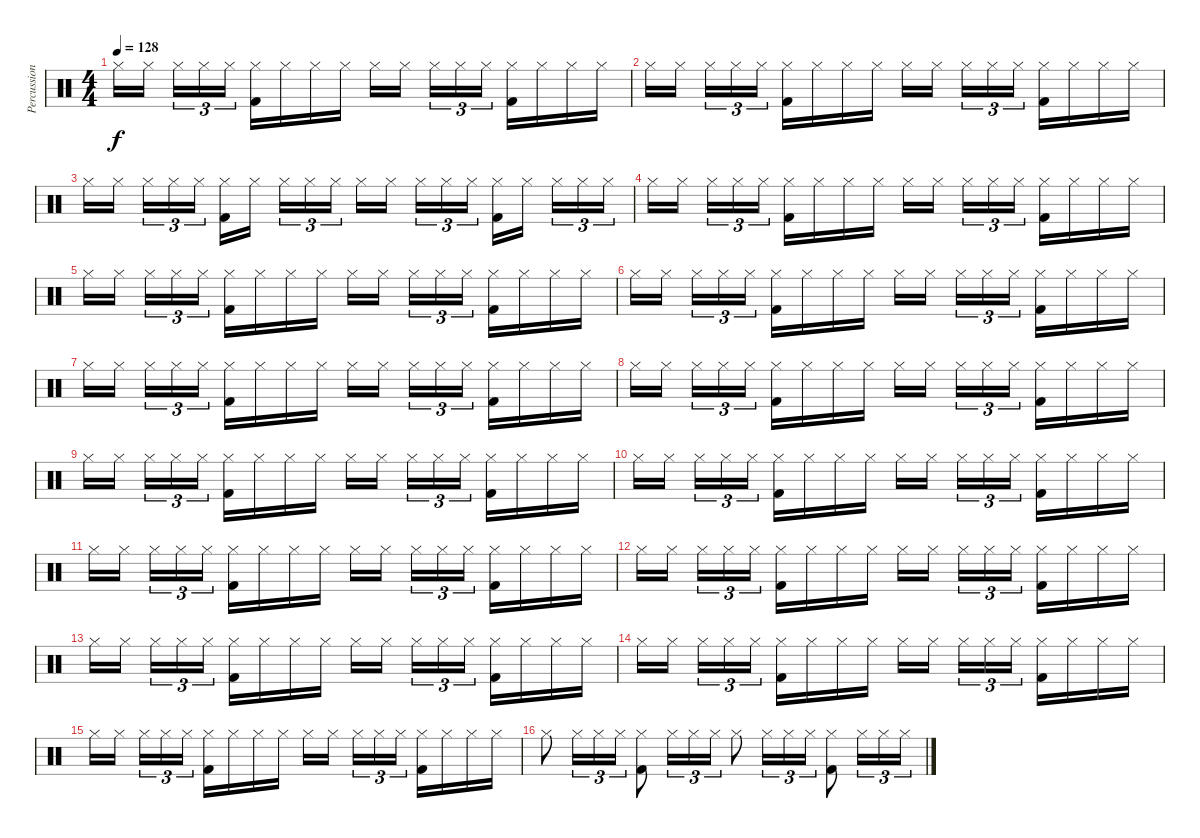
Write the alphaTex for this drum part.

\track ("Percussion" "Percussion") {instrument percussion}
\staff {score}
\articulation defaults
\ts (4 4)
\tempo 128
\clef neutral
\ks c "Hi-Hat (closed)".16{dy f} "Hi-Hat (closed)".16 "Hi-Hat (closed)".16{tu (3 2)} "Hi-Hat (closed)".16{tu (3 2)} "Hi-Hat (closed)".16{tu (3 2)}
("Kick (hit) 2" "Hi-Hat (closed)").16 "Hi-Hat (closed)".16 "Hi-Hat (closed)".16 "Hi-Hat (closed)".16 "Hi-Hat (closed)".16 "Hi-Hat (closed)".16 "Hi-Hat (closed)".16{tu (3 2)} "Hi-Hat (closed)".16{tu (3 2)} "Hi-Hat (closed)".16{tu (3 2)} ("Kick (hit) 2" "Hi-Hat (closed)").16 "Hi-Hat (closed)".16 "Hi-Hat (closed)".16 "Hi-Hat (closed)".16 |
"Hi-Hat (closed)".16 "Hi-Hat (closed)".16 "Hi-Hat (closed)".16{tu (3 2)} "Hi-Hat (closed)".16{tu (3 2)} "Hi-Hat (closed)".16{tu (3 2)} ("Kick (hit) 2" "Hi-Hat (closed)").16 "Hi-Hat (closed)".16 "Hi-Hat (closed)".16 "Hi-Hat (closed)".16 "Hi-Hat (closed)".16 "Hi-Hat (closed)".16 "Hi-Hat (closed)".16{tu (3 2)} "Hi-Hat (closed)".16{tu (3 2)} "Hi-Hat (closed)".16{tu (3 2)} ("Kick (hit) 2" "Hi-Hat (closed)").16 "Hi-Hat (closed)".16 "Hi-Hat (closed)".16 "Hi-Hat (closed)".16 |
"Hi-Hat (closed)".16 "Hi-Hat (closed)".16 "Hi-Hat (closed)".16{tu (3 2)} "Hi-Hat (closed)".16{tu (3 2)} "Hi-Hat (closed)".16{tu (3 2)} ("Kick (hit) 2" "Hi-Hat (closed)").16 "Hi-Hat (closed)".16 "Hi-Hat (closed)".16{tu (3 2)} "Hi-Hat (closed)".16{tu (3 2)} "Hi-Hat (closed)".16{tu (3 2)} "Hi-Hat (closed)".16 "Hi-Hat (closed)".16 "Hi-Hat (closed)".16{tu (3 2)} "Hi-Hat (closed)".16{tu (3 2)} "Hi-Hat (closed)".16{tu (3 2)} ("Kick (hit) 2" "Hi-Hat (closed)").16 "Hi-Hat (closed)".16 "Hi-Hat (closed)".16{tu (3 2)} "Hi-Hat (closed)".16{tu (3 2)} "Hi-Hat (closed)".16{tu (3 2)} |
"Hi-Hat (closed)".16 "Hi-Hat (closed)".16 "Hi-Hat (closed)".16{tu (3 2)} "Hi-Hat (closed)".16{tu (3 2)} "Hi-Hat (closed)".16{tu (3 2)} ("Kick (hit) 2" "Hi-Hat (closed)").16 "Hi-Hat (closed)".16 "Hi-Hat (closed)".16 "Hi-Hat (closed)".16 "Hi-Hat (closed)".16 "Hi-Hat (closed)".16 "Hi-Hat (closed)".16{tu (3 2)} "Hi-Hat (closed)".16{tu (3 2)} "Hi-Hat (closed)".16{tu (3 2)} ("Kick (hit) 2" "Hi-Hat (closed)").16 "Hi-Hat (closed)".16 "Hi-Hat (closed)".16 "Hi-Hat (closed)".16 |
"Hi-Hat (closed)".16 "Hi-Hat (closed)".16 "Hi-Hat (closed)".16{tu (3 2)} "Hi-Hat (closed)".16{tu (3 2)} "Hi-Hat (closed)".16{tu (3 2)} ("Kick (hit) 2" "Hi-Hat (closed)").16 "Hi-Hat (closed)".16 "Hi-Hat (closed)".16 "Hi-Hat (closed)".16 "Hi-Hat (closed)".16 "Hi-Hat (closed)".16 "Hi-Hat (closed)".16{tu (3 2)} "Hi-Hat (closed)".16{tu (3 2)} "Hi-Hat (closed)".16{tu (3 2)} ("Kick (hit) 2" "Hi-Hat (closed)").16 "Hi-Hat (closed)".16 "Hi-Hat (closed)".16 "Hi-Hat (closed)".16 |
"Hi-Hat (closed)".16 "Hi-Hat (closed)".16 "Hi-Hat (closed)".16{tu (3 2)} "Hi-Hat (closed)".16{tu (3 2)} "Hi-Hat (closed)".16{tu (3 2)} ("Kick (hit) 2" "Hi-Hat (closed)").16 "Hi-Hat (closed)".16 "Hi-Hat (closed)".16 "Hi-Hat (closed)".16 "Hi-Hat (closed)".16 "Hi-Hat (closed)".16 "Hi-Hat (closed)".16{tu (3 2)} "Hi-Hat (closed)".16{tu (3 2)} "Hi-Hat (closed)".16{tu (3 2)} ("Kick (hit) 2" "Hi-Hat (closed)").16 "Hi-Hat (closed)".16 "Hi-Hat (closed)".16 "Hi-Hat (closed)".16 |
"Hi-Hat (closed)".16 "Hi-Hat (closed)".16 "Hi-Hat (closed)".16{tu (3 2)} "Hi-Hat (closed)".16{tu (3 2)} "Hi-Hat (closed)".16{tu (3 2)} ("Kick (hit) 2" "Hi-Hat (closed)").16 "Hi-Hat (closed)".16 "Hi-Hat (closed)".16 "Hi-Hat (closed)".16 "Hi-Hat (closed)".16 "Hi-Hat (closed)".16 "Hi-Hat (closed)".16{tu (3 2)} "Hi-Hat (closed)".16{tu (3 2)} "Hi-Hat (closed)".16{tu (3 2)} ("Kick (hit) 2" "Hi-Hat (closed)").16 "Hi-Hat (closed)".16 "Hi-Hat (closed)".16 "Hi-Hat (closed)".16 |
"Hi-Hat (closed)".16 "Hi-Hat (closed)".16 "Hi-Hat (closed)".16{tu (3 2)} "Hi-Hat (closed)".16{tu (3 2)} "Hi-Hat (closed)".16{tu (3 2)} ("Kick (hit) 2" "Hi-Hat (closed)").16 "Hi-Hat (closed)".16 "Hi-Hat (closed)".16 "Hi-Hat (closed)".16 "Hi-Hat (closed)".16 "Hi-Hat (closed)".16 "Hi-Hat (closed)".16{tu (3 2)} "Hi-Hat (closed)".16{tu (3 2)} "Hi-Hat (closed)".16{tu (3 2)} ("Kick (hit) 2" "Hi-Hat (closed)").16 "Hi-Hat (closed)".16 "Hi-Hat (closed)".16 "Hi-Hat (closed)".16 |
"Hi-Hat (closed)".16 "Hi-Hat (closed)".16 "Hi-Hat (closed)".16{tu (3 2)} "Hi-Hat (closed)".16{tu (3 2)} "Hi-Hat (closed)".16{tu (3 2)} ("Kick (hit) 2" "Hi-Hat (closed)").16 "Hi-Hat (closed)".16 "Hi-Hat (closed)".16 "Hi-Hat (closed)".16 "Hi-Hat (closed)".16 "Hi-Hat (closed)".16 "Hi-Hat (closed)".16{tu (3 2)} "Hi-Hat (closed)".16{tu (3 2)} "Hi-Hat (closed)".16{tu (3 2)} ("Kick (hit) 2" "Hi-Hat (closed)").16 "Hi-Hat (closed)".16 "Hi-Hat (closed)".16 "Hi-Hat (closed)".16 |
"Hi-Hat (closed)".16 "Hi-Hat (closed)".16 "Hi-Hat (closed)".16{tu (3 2)} "Hi-Hat (closed)".16{tu (3 2)} "Hi-Hat (closed)".16{tu (3 2)} ("Kick (hit) 2" "Hi-Hat (closed)").16 "Hi-Hat (closed)".16 "Hi-Hat (closed)".16 "Hi-Hat (closed)".16 "Hi-Hat (closed)".16 "Hi-Hat (closed)".16 "Hi-Hat (closed)".16{tu (3 2)} "Hi-Hat (closed)".16{tu (3 2)} "Hi-Hat (closed)".16{tu (3 2)} ("Kick (hit) 2" "Hi-Hat (closed)").16 "Hi-Hat (closed)".16 "Hi-Hat (closed)".16 "Hi-Hat (closed)".16 |
"Hi-Hat (closed)".16 "Hi-Hat (closed)".16 "Hi-Hat (closed)".16{tu (3 2)} "Hi-Hat (closed)".16{tu (3 2)} "Hi-Hat (closed)".16{tu (3 2)} ("Kick (hit) 2" "Hi-Hat (closed)").16 "Hi-Hat (closed)".16 "Hi-Hat (closed)".16 "Hi-Hat (closed)".16 "Hi-Hat (closed)".16 "Hi-Hat (closed)".16 "Hi-Hat (closed)".16{tu (3 2)} "Hi-Hat (closed)".16{tu (3 2)} "Hi-Hat (closed)".16{tu (3 2)} ("Kick (hit) 2" "Hi-Hat (closed)").16 "Hi-Hat (closed)".16 "Hi-Hat (closed)".16 "Hi-Hat (closed)".16 |
"Hi-Hat (closed)".16 "Hi-Hat (closed)".16 "Hi-Hat (closed)".16{tu (3 2)} "Hi-Hat (closed)".16{tu (3 2)} "Hi-Hat (closed)".16{tu (3 2)} ("Kick (hit) 2" "Hi-Hat (closed)").16 "Hi-Hat (closed)".16 "Hi-Hat (closed)".16 "Hi-Hat (closed)".16 "Hi-Hat (closed)".16 "Hi-Hat (closed)".16 "Hi-Hat (closed)".16{tu (3 2)} "Hi-Hat (closed)".16{tu (3 2)} "Hi-Hat (closed)".16{tu (3 2)} ("Kick (hit) 2" "Hi-Hat (closed)").16 "Hi-Hat (closed)".16 "Hi-Hat (closed)".16 "Hi-Hat (closed)".16 |
"Hi-Hat (closed)".16 "Hi-Hat (closed)".16 "Hi-Hat (closed)".16{tu (3 2)} "Hi-Hat (closed)".16{tu (3 2)} "Hi-Hat (closed)".16{tu (3 2)} ("Kick (hit) 2" "Hi-Hat (closed)").16 "Hi-Hat (closed)".16 "Hi-Hat (closed)".16 "Hi-Hat (closed)".16 "Hi-Hat (closed)".16 "Hi-Hat (closed)".16 "Hi-Hat (closed)".16{tu (3 2)} "Hi-Hat (closed)".16{tu (3 2)} "Hi-Hat (closed)".16{tu (3 2)} ("Kick (hit) 2" "Hi-Hat (closed)").16 "Hi-Hat (closed)".16 "Hi-Hat (closed)".16 "Hi-Hat (closed)".16 |
"Hi-Hat (closed)".16 "Hi-Hat (closed)".16 "Hi-Hat (closed)".16{tu (3 2)} "Hi-Hat (closed)".16{tu (3 2)} "Hi-Hat (closed)".16{tu (3 2)} ("Kick (hit) 2" "Hi-Hat (closed)").16 "Hi-Hat (closed)".16 "Hi-Hat (closed)".16 "Hi-Hat (closed)".16 "Hi-Hat (closed)".16 "Hi-Hat (closed)".16 "Hi-Hat (closed)".16{tu (3 2)} "Hi-Hat (closed)".16{tu (3 2)} "Hi-Hat (closed)".16{tu (3 2)} ("Kick (hit) 2" "Hi-Hat (closed)").16 "Hi-Hat (closed)".16 "Hi-Hat (closed)".16 "Hi-Hat (closed)".16 |
"Hi-Hat (closed)".16 "Hi-Hat (closed)".16 "Hi-Hat (closed)".16{tu (3 2)} "Hi-Hat (closed)".16{tu (3 2)} "Hi-Hat (closed)".16{tu (3 2)} ("Kick (hit) 2" "Hi-Hat (closed)").16 "Hi-Hat (closed)".16 "Hi-Hat (closed)".16 "Hi-Hat (closed)".16 "Hi-Hat (closed)".16 "Hi-Hat (closed)".16 "Hi-Hat (closed)".16{tu (3 2)} "Hi-Hat (closed)".16{tu (3 2)} "Hi-Hat (closed)".16{tu (3 2)} ("Kick (hit) 2" "Hi-Hat (closed)").16 "Hi-Hat (closed)".16 "Hi-Hat (closed)".16 "Hi-Hat (closed)".16 |
"Hi-Hat (closed)".8 "Hi-Hat (closed)".16{tu (3 2)} "Hi-Hat (closed)".16{tu (3 2)} "Hi-Hat (closed)".16{tu (3 2)} ("Kick (hit) 2" "Hi-Hat (closed)").8 "Hi-Hat (closed)".16{tu (3 2)} "Hi-Hat (closed)".16{tu (3 2)} "Hi-Hat (closed)".16{tu (3 2)} "Hi-Hat (closed)".8 "Hi-Hat (closed)".16{tu (3 2)} "Hi-Hat (closed)".16{tu (3 2)} "Hi-Hat (closed)".16{tu (3 2)} ("Kick (hit) 2" "Hi-Hat (closed)").8 "Hi-Hat (closed)".16{tu (3 2)} "Hi-Hat (closed)".16{tu (3 2)} "Hi-Hat (closed)".16{tu (3 2)}
